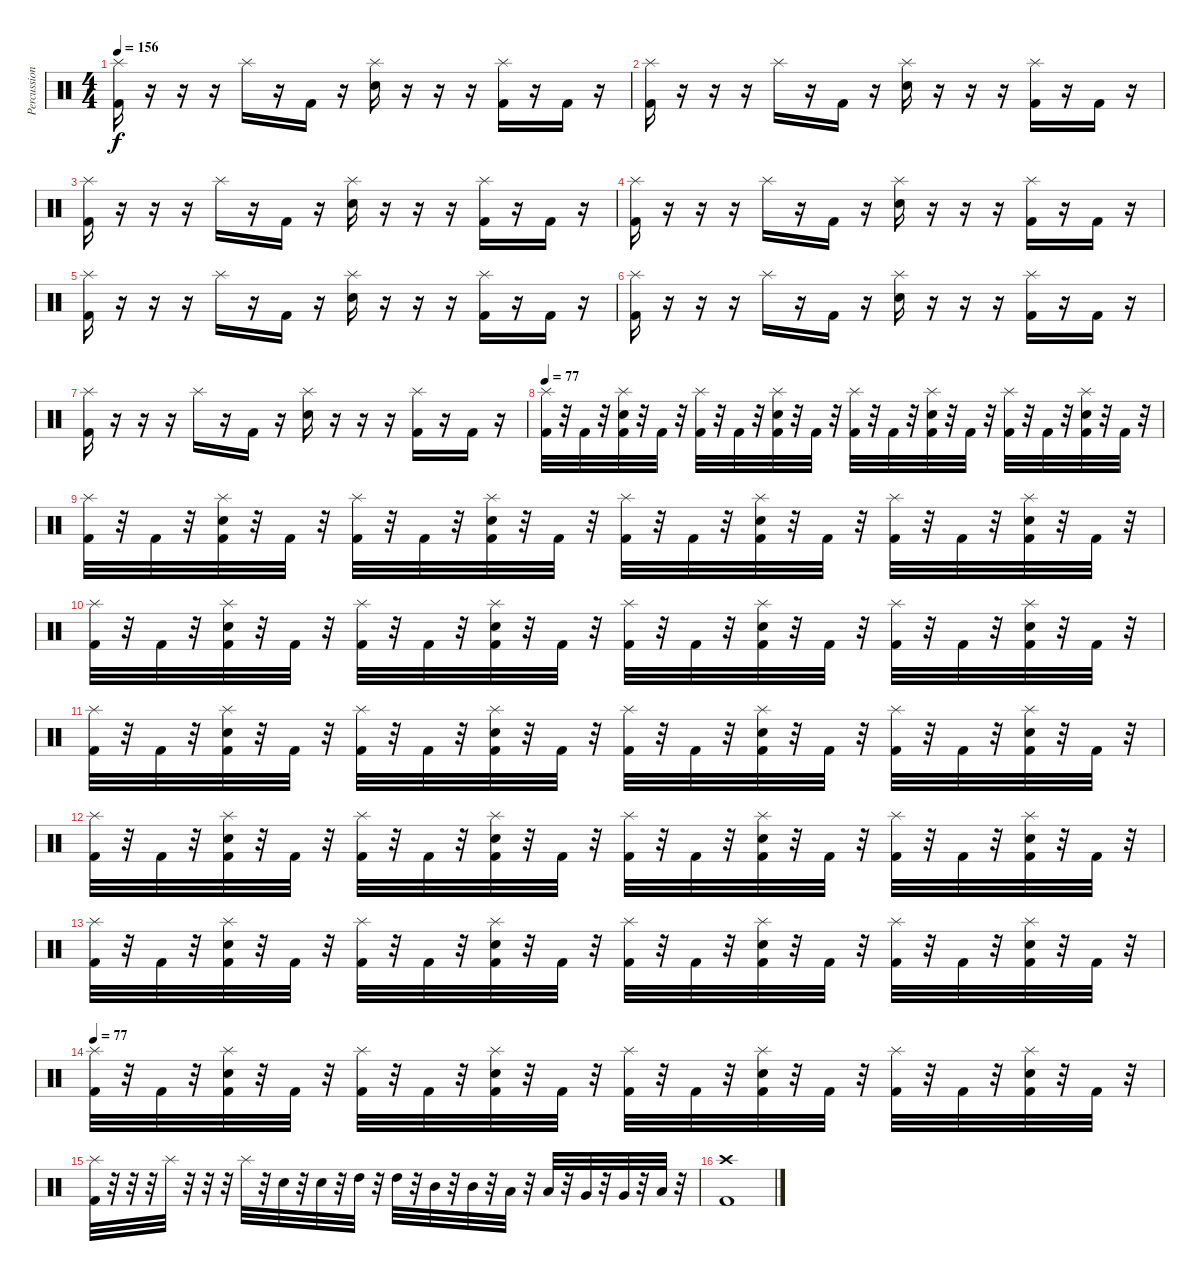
\track ("Percussion" "Percussion") {instrument percussion}
\staff {score}
\articulation defaults
\ts (4 4)
\tempo 156
\clef neutral
\ks c
("Splash (hit)" "Kick (hit) 2").16{dy f} r.16 r.16 r.16 "Splash (hit)".16 r.16 "Kick (hit) 2".16 r.16 ("Splash (hit)" "Electric Snare (hit)").16 r.16 r.16 r.16 ("Splash (hit)" "Kick (hit) 2").16 r.16 "Kick (hit) 2".16 r.16 |
("Splash (hit)" "Kick (hit) 2").16 r.16 r.16 r.16 "Splash (hit)".16 r.16 "Kick (hit) 2".16 r.16 ("Splash (hit)" "Electric Snare (hit)").16 r.16 r.16 r.16 ("Splash (hit)" "Kick (hit) 2").16 r.16 "Kick (hit) 2".16 r.16 |
("Splash (hit)" "Kick (hit) 2").16 r.16 r.16 r.16 "Splash (hit)".16 r.16 "Kick (hit) 2".16 r.16 ("Splash (hit)" "Electric Snare (hit)").16 r.16 r.16 r.16 ("Splash (hit)" "Kick (hit) 2").16 r.16 "Kick (hit) 2".16 r.16 |
("Splash (hit)" "Kick (hit) 2").16 r.16 r.16 r.16 "Splash (hit)".16 r.16 "Kick (hit) 2".16 r.16 ("Splash (hit)" "Electric Snare (hit)").16 r.16 r.16 r.16 ("Splash (hit)" "Kick (hit) 2").16 r.16 "Kick (hit) 2".16 r.16 |
("Splash (hit)" "Kick (hit) 2").16 r.16 r.16 r.16 "Splash (hit)".16 r.16 "Kick (hit) 2".16 r.16 ("Splash (hit)" "Electric Snare (hit)").16 r.16 r.16 r.16 ("Splash (hit)" "Kick (hit) 2").16 r.16 "Kick (hit) 2".16 r.16 |
("Splash (hit)" "Kick (hit) 2").16 r.16 r.16 r.16 "Splash (hit)".16 r.16 "Kick (hit) 2".16 r.16 ("Splash (hit)" "Electric Snare (hit)").16 r.16 r.16 r.16 ("Splash (hit)" "Kick (hit) 2").16 r.16 "Kick (hit) 2".16 r.16 |
("Splash (hit)" "Kick (hit) 2").16 r.16 r.16 r.16 "Splash (hit)".16 r.16 "Kick (hit) 2".16 r.16 ("Splash (hit)" "Electric Snare (hit)").16 r.16 r.16 r.16 ("Splash (hit)" "Kick (hit) 2").16 r.16 "Kick (hit) 2".16 r.16 |
\tempo 77
("Splash (hit)" "Kick (hit) 2").32 r.32 "Kick (hit) 2".32 r.32 ("Splash (hit)" "Electric Snare (hit)" "Kick (hit) 2").32 r.32 "Kick (hit) 2".32 r.32 ("Splash (hit)" "Kick (hit) 2").32 r.32 "Kick (hit) 2".32 r.32 ("Splash (hit)" "Electric Snare (hit)" "Kick (hit) 2").32 r.32 "Kick (hit) 2".32 r.32 ("Splash (hit)" "Kick (hit) 2").32 r.32 "Kick (hit) 2".32 r.32 ("Splash (hit)" "Electric Snare (hit)" "Kick (hit) 2").32 r.32 "Kick (hit) 2".32 r.32 ("Splash (hit)" "Kick (hit) 2").32 r.32 "Kick (hit) 2".32 r.32 ("Splash (hit)" "Electric Snare (hit)" "Kick (hit) 2").32 r.32 "Kick (hit) 2".32 r.32 |
("Splash (hit)" "Kick (hit) 2").32 r.32 "Kick (hit) 2".32 r.32 ("Splash (hit)" "Electric Snare (hit)" "Kick (hit) 2").32 r.32 "Kick (hit) 2".32 r.32 ("Splash (hit)" "Kick (hit) 2").32 r.32 "Kick (hit) 2".32 r.32 ("Splash (hit)" "Electric Snare (hit)" "Kick (hit) 2").32 r.32 "Kick (hit) 2".32 r.32 ("Splash (hit)" "Kick (hit) 2").32 r.32 "Kick (hit) 2".32 r.32 ("Splash (hit)" "Electric Snare (hit)" "Kick (hit) 2").32 r.32 "Kick (hit) 2".32 r.32 ("Splash (hit)" "Kick (hit) 2").32 r.32 "Kick (hit) 2".32 r.32 ("Splash (hit)" "Electric Snare (hit)" "Kick (hit) 2").32 r.32 "Kick (hit) 2".32 r.32 |
("Splash (hit)" "Kick (hit) 2").32 r.32 "Kick (hit) 2".32 r.32 ("Splash (hit)" "Electric Snare (hit)" "Kick (hit) 2").32 r.32 "Kick (hit) 2".32 r.32 ("Splash (hit)" "Kick (hit) 2").32 r.32 "Kick (hit) 2".32 r.32 ("Splash (hit)" "Electric Snare (hit)" "Kick (hit) 2").32 r.32 "Kick (hit) 2".32 r.32 ("Splash (hit)" "Kick (hit) 2").32 r.32 "Kick (hit) 2".32 r.32 ("Splash (hit)" "Electric Snare (hit)" "Kick (hit) 2").32 r.32 "Kick (hit) 2".32 r.32 ("Splash (hit)" "Kick (hit) 2").32 r.32 "Kick (hit) 2".32 r.32 ("Splash (hit)" "Electric Snare (hit)" "Kick (hit) 2").32 r.32 "Kick (hit) 2".32 r.32 |
("Splash (hit)" "Kick (hit) 2").32 r.32 "Kick (hit) 2".32 r.32 ("Splash (hit)" "Electric Snare (hit)" "Kick (hit) 2").32 r.32 "Kick (hit) 2".32 r.32 ("Splash (hit)" "Kick (hit) 2").32 r.32 "Kick (hit) 2".32 r.32 ("Splash (hit)" "Electric Snare (hit)" "Kick (hit) 2").32 r.32 "Kick (hit) 2".32 r.32 ("Splash (hit)" "Kick (hit) 2").32 r.32 "Kick (hit) 2".32 r.32 ("Splash (hit)" "Electric Snare (hit)" "Kick (hit) 2").32 r.32 "Kick (hit) 2".32 r.32 ("Splash (hit)" "Kick (hit) 2").32 r.32 "Kick (hit) 2".32 r.32 ("Splash (hit)" "Electric Snare (hit)" "Kick (hit) 2").32 r.32 "Kick (hit) 2".32 r.32 |
("Splash (hit)" "Kick (hit) 2").32 r.32 "Kick (hit) 2".32 r.32 ("Splash (hit)" "Electric Snare (hit)" "Kick (hit) 2").32 r.32 "Kick (hit) 2".32 r.32 ("Splash (hit)" "Kick (hit) 2").32 r.32 "Kick (hit) 2".32 r.32 ("Splash (hit)" "Electric Snare (hit)" "Kick (hit) 2").32 r.32 "Kick (hit) 2".32 r.32 ("Splash (hit)" "Kick (hit) 2").32 r.32 "Kick (hit) 2".32 r.32 ("Splash (hit)" "Electric Snare (hit)" "Kick (hit) 2").32 r.32 "Kick (hit) 2".32 r.32 ("Splash (hit)" "Kick (hit) 2").32 r.32 "Kick (hit) 2".32 r.32 ("Splash (hit)" "Electric Snare (hit)" "Kick (hit) 2").32 r.32 "Kick (hit) 2".32 r.32 |
("Splash (hit)" "Kick (hit) 2").32 r.32 "Kick (hit) 2".32 r.32 ("Splash (hit)" "Electric Snare (hit)" "Kick (hit) 2").32 r.32 "Kick (hit) 2".32 r.32 ("Splash (hit)" "Kick (hit) 2").32 r.32 "Kick (hit) 2".32 r.32 ("Splash (hit)" "Electric Snare (hit)" "Kick (hit) 2").32 r.32 "Kick (hit) 2".32 r.32 ("Splash (hit)" "Kick (hit) 2").32 r.32 "Kick (hit) 2".32 r.32 ("Splash (hit)" "Electric Snare (hit)" "Kick (hit) 2").32 r.32 "Kick (hit) 2".32 r.32 ("Splash (hit)" "Kick (hit) 2").32 r.32 "Kick (hit) 2".32 r.32 ("Splash (hit)" "Electric Snare (hit)" "Kick (hit) 2").32 r.32 "Kick (hit) 2".32 r.32 |
\tempo 77
("Splash (hit)" "Kick (hit) 2").32 r.32 "Kick (hit) 2".32 r.32 ("Splash (hit)" "Electric Snare (hit)" "Kick (hit) 2").32 r.32 "Kick (hit) 2".32 r.32 ("Splash (hit)" "Kick (hit) 2").32 r.32 "Kick (hit) 2".32 r.32 ("Splash (hit)" "Electric Snare (hit)" "Kick (hit) 2").32 r.32 "Kick (hit) 2".32 r.32 ("Splash (hit)" "Kick (hit) 2").32 r.32 "Kick (hit) 2".32 r.32 ("Splash (hit)" "Electric Snare (hit)" "Kick (hit) 2").32 r.32 "Kick (hit) 2".32 r.32 ("Splash (hit)" "Kick (hit) 2").32 r.32 "Kick (hit) 2".32 r.32 ("Splash (hit)" "Electric Snare (hit)" "Kick (hit) 2").32 r.32 "Kick (hit) 2".32 r.32 |
("Splash (hit)" "Kick (hit) 2").32 r.32 r.32 r.32 "Splash (hit)".32 r.32 r.32 r.32 "Splash (hit)".32 r.32 "Electric Snare (hit)".32 r.32 "Electric Snare (hit)".32 r.32 "High Tom (hit)".32 r.32 "High Tom (hit)".32 r.32 "Mid Tom (hit)".32 r.32 "Mid Tom (hit)".32 r.32 "Low Tom (hit)".32 r.32 "Low Tom (hit)".32 r.32 "Very Low Tom (hit)".32 r.32 "Very Low Tom (hit)".32 r.32 "Low Floor Tom (hit)".32 r.32 |
("Crash high (hit)" "Kick (hit) 2").1
